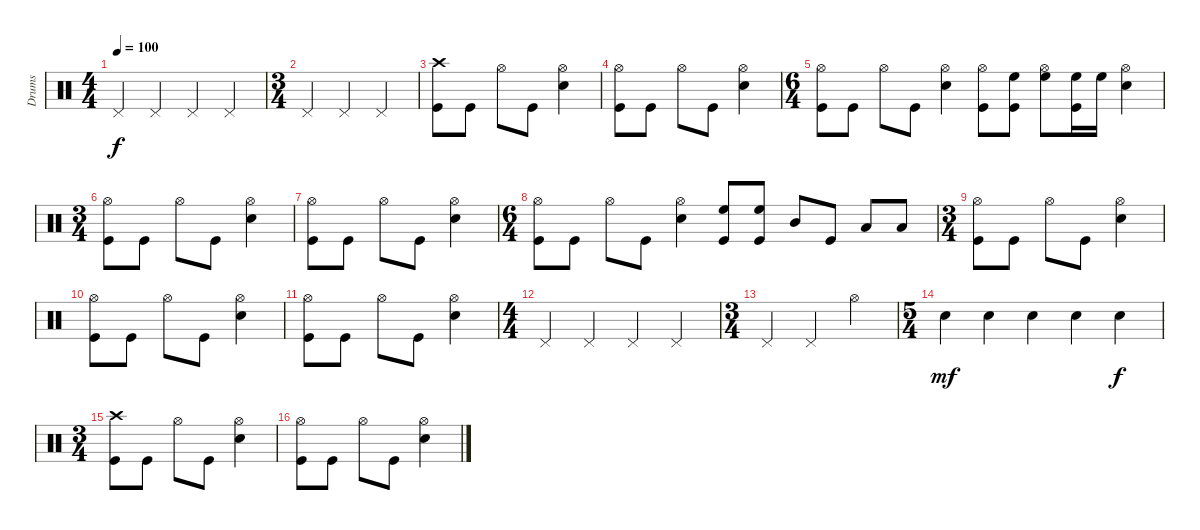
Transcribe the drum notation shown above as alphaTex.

\track ("Drums" "Drums") {instrument percussion}
\staff {score}
\articulation defaults
\ts (4 4)
\tempo 100
\clef neutral
\ks c "Pedal Hi-Hat (hit)".4{dy f} "Pedal Hi-Hat (hit)".4 "Pedal Hi-Hat (hit)".4 "Pedal Hi-Hat (hit)".4
|
\ts (3 4)
"Pedal Hi-Hat (hit)".4 "Pedal Hi-Hat (hit)".4 "Pedal Hi-Hat (hit)".4 |
("Crash high (hit)" "Kick (hit)").8 "Kick (hit)".8 "Hi-Hat (open)".8 "Kick (hit)".8 ("Hi-Hat (open)" "Electric Snare (hit)").4 |
("Hi-Hat (open)" "Kick (hit)").8 "Kick (hit)".8 "Hi-Hat (open)".8 "Kick (hit)".8 ("Hi-Hat (open)" "Electric Snare (hit)").4 |
\ts (6 4)
("Hi-Hat (open)" "Kick (hit)").8 "Kick (hit)".8 "Hi-Hat (open)".8 "Kick (hit)".8 ("Hi-Hat (open)" "Electric Snare (hit)").4 ("Hi-Hat (open)" "Kick (hit)").8 ("High Floor Tom (hit)" "Kick (hit)").8 ("Hi-Hat (open)" "High Floor Tom (hit)").8 ("High Floor Tom (hit)" "Kick (hit)").16 "High Floor Tom (hit)".16 ("Hi-Hat (open)" "Electric Snare (hit)").4 |
\ts (3 4)
("Hi-Hat (open)" "Kick (hit)").8 "Kick (hit)".8 "Hi-Hat (open)".8 "Kick (hit)".8 ("Hi-Hat (open)" "Electric Snare (hit)").4 |
("Hi-Hat (open)" "Kick (hit)").8 "Kick (hit)".8 "Hi-Hat (open)".8 "Kick (hit)".8 ("Hi-Hat (open)" "Electric Snare (hit)").4 |
\ts (6 4)
("Hi-Hat (open)" "Kick (hit)").8 "Kick (hit)".8 "Hi-Hat (open)".8 "Kick (hit)".8 ("Hi-Hat (open)" "Electric Snare (hit)").4 ("High Floor Tom (hit)" "Kick (hit)").8 ("High Floor Tom (hit)" "Kick (hit)").8 "Mid Tom (hit)".8 "Kick (hit)".8 "Low Tom (hit)".8 "Low Tom (hit)".8 |
\ts (3 4)
("Hi-Hat (open)" "Kick (hit)").8 "Kick (hit)".8 "Hi-Hat (open)".8 "Kick (hit)".8 ("Hi-Hat (open)" "Electric Snare (hit)").4 |
("Hi-Hat (open)" "Kick (hit)").8 "Kick (hit)".8 "Hi-Hat (open)".8 "Kick (hit)".8 ("Hi-Hat (open)" "Electric Snare (hit)").4 |
("Hi-Hat (open)" "Kick (hit)").8 "Kick (hit)".8 "Hi-Hat (open)".8 "Kick (hit)".8 ("Hi-Hat (open)" "Electric Snare (hit)").4 |
\ts (4 4)
"Pedal Hi-Hat (hit)".4 "Pedal Hi-Hat (hit)".4 "Pedal Hi-Hat (hit)".4 "Pedal Hi-Hat (hit)".4 |
\ts (3 4)
"Pedal Hi-Hat (hit)".4 "Pedal Hi-Hat (hit)".4 "Hi-Hat (open)".4 |
\ts (5 4)
"Electric Snare (hit)".4{dy mf} "Electric Snare (hit)".4 "Electric Snare (hit)".4 "Electric Snare (hit)".4 "Electric Snare (hit)".4{dy f} |
\ts (3 4)
("Crash high (hit)" "Kick (hit)").8 "Kick (hit)".8 "Hi-Hat (open)".8 "Kick (hit)".8 ("Hi-Hat (open)" "Electric Snare (hit)").4 |
("Hi-Hat (open)" "Kick (hit)").8 "Kick (hit)".8 "Hi-Hat (open)".8 "Kick (hit)".8 ("Hi-Hat (open)" "Electric Snare (hit)").4
